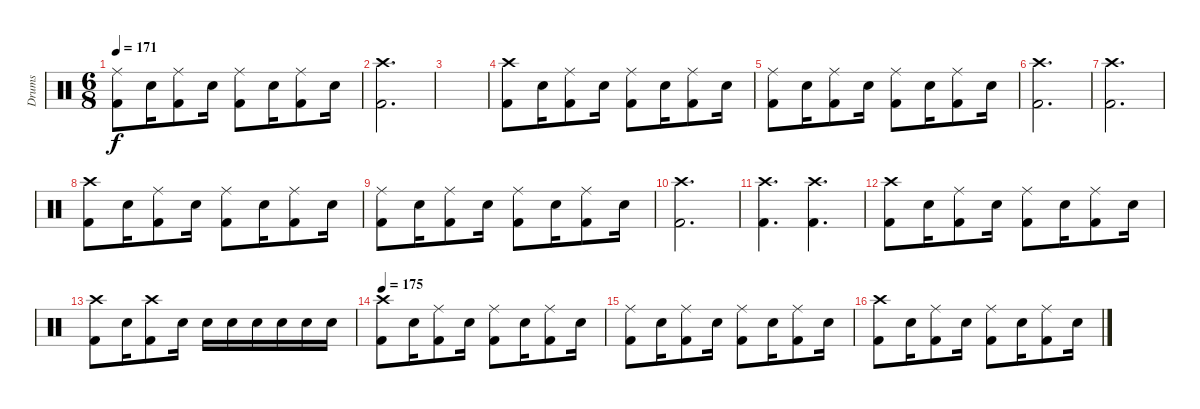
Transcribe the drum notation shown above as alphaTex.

\track ("Drums" "Drums") {instrument percussion}
\staff {score}
\articulation defaults
\ts (6 8)
\tempo 171
\clef neutral
\ks c
("Ride (middle)" "Kick (hit) 2").8{dy f} "Snare (hit) 2".16 ("Ride (middle)" "Kick (hit) 2").8 "Snare (hit) 2".16 ("Ride (middle)" "Kick (hit) 2").8 "Snare (hit) 2".16 ("Ride (middle)" "Kick (hit) 2").8 "Snare (hit) 2".16 |
("Crash high (hit)" "Kick (hit) 2").2{d} |
|
("Crash high (hit)" "Kick (hit) 2").8 "Snare (hit) 2".16 ("Ride (middle)" "Kick (hit) 2").8 "Snare (hit) 2".16 ("Ride (middle)" "Kick (hit) 2").8 "Snare (hit) 2".16 ("Ride (middle)" "Kick (hit) 2").8 "Snare (hit) 2".16 |
("Ride (middle)" "Kick (hit) 2").8 "Snare (hit) 2".16 ("Ride (middle)" "Kick (hit) 2").8 "Snare (hit) 2".16 ("Ride (middle)" "Kick (hit) 2").8 "Snare (hit) 2".16 ("Ride (middle)" "Kick (hit) 2").8 "Snare (hit) 2".16 |
("Crash high (hit)" "Kick (hit) 2").2{d} |
("Crash high (hit)" "Kick (hit) 2").2{d} |
("Crash high (hit)" "Kick (hit) 2").8 "Snare (hit) 2".16 ("Ride (middle)" "Kick (hit) 2").8 "Snare (hit) 2".16 ("Ride (middle)" "Kick (hit) 2").8 "Snare (hit) 2".16 ("Ride (middle)" "Kick (hit) 2").8 "Snare (hit) 2".16 |
("Ride (middle)" "Kick (hit) 2").8 "Snare (hit) 2".16 ("Ride (middle)" "Kick (hit) 2").8 "Snare (hit) 2".16 ("Ride (middle)" "Kick (hit) 2").8 "Snare (hit) 2".16 ("Ride (middle)" "Kick (hit) 2").8 "Snare (hit) 2".16 |
("Crash high (hit)" "Kick (hit) 2").2{d} |
("Crash high (hit)" "Kick (hit) 2").4{d} ("Crash high (hit)" "Kick (hit) 2").4{d} |
("Crash high (hit)" "Kick (hit) 2").8 "Snare (hit) 2".16 ("Ride (middle)" "Kick (hit) 2").8 "Snare (hit) 2".16 ("Ride (middle)" "Kick (hit) 2").8 "Snare (hit) 2".16 ("Ride (middle)" "Kick (hit) 2").8 "Snare (hit) 2".16 |
("Crash high (hit)" "Kick (hit) 2").8 "Snare (hit) 2".16 ("Crash high (hit)" "Kick (hit) 2").8 "Snare (hit) 2".16 "Snare (hit) 2".16 "Snare (hit) 2".16 "Snare (hit) 2".16 "Snare (hit) 2".16 "Snare (hit) 2".16 "Snare (hit) 2".16 |
\tempo 175
("Crash high (hit)" "Kick (hit) 2").8 "Snare (hit) 2".16 ("Ride (middle)" "Kick (hit) 2").8 "Snare (hit) 2".16 ("Ride (middle)" "Kick (hit) 2").8 "Snare (hit) 2".16 ("Ride (middle)" "Kick (hit) 2").8 "Snare (hit) 2".16 |
("Ride (middle)" "Kick (hit) 2").8 "Snare (hit) 2".16 ("Ride (middle)" "Kick (hit) 2").8 "Snare (hit) 2".16 ("Ride (middle)" "Kick (hit) 2").8 "Snare (hit) 2".16 ("Ride (middle)" "Kick (hit) 2").8 "Snare (hit) 2".16 |
("Crash high (hit)" "Kick (hit) 2").8 "Snare (hit) 2".16 ("Ride (middle)" "Kick (hit) 2").8 "Snare (hit) 2".16 ("Ride (middle)" "Kick (hit) 2").8 "Snare (hit) 2".16 ("Ride (middle)" "Kick (hit) 2").8 "Snare (hit) 2".16
